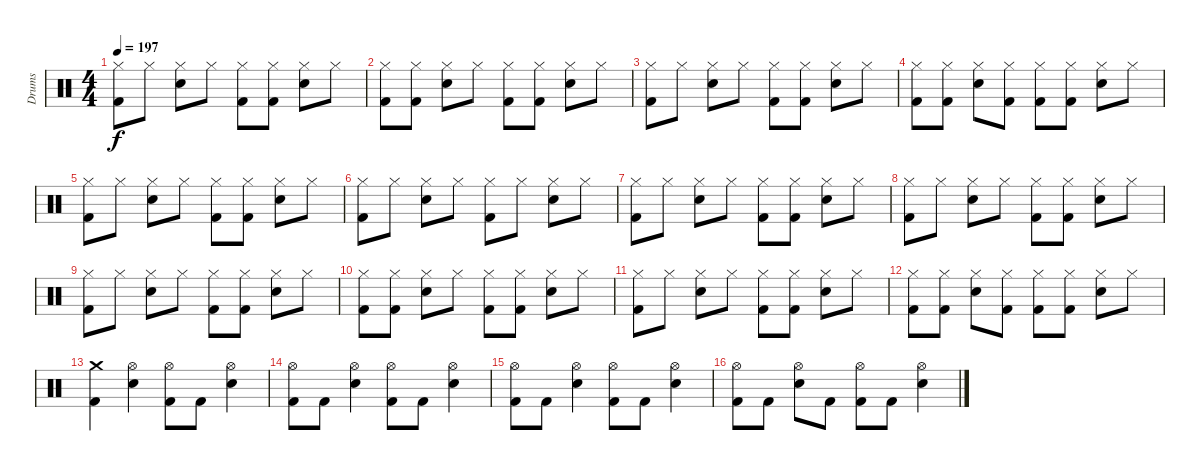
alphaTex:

\track ("Drums" "Drums") {instrument percussion}
\staff {score}
\articulation defaults
\ts (4 4)
\tempo 197
\clef neutral
\ks c
("Hi-Hat (closed)" "Kick (hit) 2").8{dy f} "Hi-Hat (closed)".8 ("Hi-Hat (closed)" "Electric Snare (hit)").8 "Hi-Hat (closed)".8 ("Hi-Hat (closed)" "Kick (hit) 2").8 ("Hi-Hat (closed)" "Kick (hit) 2").8 ("Hi-Hat (closed)" "Electric Snare (hit)").8 "Hi-Hat (closed)".8 |
("Hi-Hat (closed)" "Kick (hit) 2").8 ("Hi-Hat (closed)" "Kick (hit) 2").8 ("Hi-Hat (closed)" "Electric Snare (hit)").8 "Hi-Hat (closed)".8 ("Hi-Hat (closed)" "Kick (hit) 2").8 ("Hi-Hat (closed)" "Kick (hit) 2").8 ("Hi-Hat (closed)" "Electric Snare (hit)").8 "Hi-Hat (closed)".8 |
("Hi-Hat (closed)" "Kick (hit) 2").8 "Hi-Hat (closed)".8 ("Hi-Hat (closed)" "Electric Snare (hit)").8 "Hi-Hat (closed)".8 ("Hi-Hat (closed)" "Kick (hit) 2").8 ("Hi-Hat (closed)" "Kick (hit) 2").8 ("Hi-Hat (closed)" "Electric Snare (hit)").8 "Hi-Hat (closed)".8 |
("Hi-Hat (closed)" "Kick (hit) 2").8 ("Hi-Hat (closed)" "Kick (hit) 2").8 ("Hi-Hat (closed)" "Electric Snare (hit)").8 ("Hi-Hat (closed)" "Kick (hit) 2").8 ("Hi-Hat (closed)" "Kick (hit) 2").8 ("Hi-Hat (closed)" "Kick (hit) 2").8 ("Hi-Hat (closed)" "Electric Snare (hit)").8 "Hi-Hat (closed)".8 |
("Hi-Hat (closed)" "Kick (hit) 2").8 "Hi-Hat (closed)".8 ("Hi-Hat (closed)" "Electric Snare (hit)").8 "Hi-Hat (closed)".8 ("Hi-Hat (closed)" "Kick (hit) 2").8 ("Hi-Hat (closed)" "Kick (hit) 2").8 ("Hi-Hat (closed)" "Electric Snare (hit)").8 "Hi-Hat (closed)".8 |
("Hi-Hat (closed)" "Kick (hit) 2").8 "Hi-Hat (closed)".8 ("Hi-Hat (closed)" "Electric Snare (hit)").8 "Hi-Hat (closed)".8 ("Hi-Hat (closed)" "Kick (hit) 2").8 "Hi-Hat (closed)".8 ("Hi-Hat (closed)" "Electric Snare (hit)").8 "Hi-Hat (closed)".8 |
("Hi-Hat (closed)" "Kick (hit) 2").8 "Hi-Hat (closed)".8 ("Hi-Hat (closed)" "Electric Snare (hit)").8 "Hi-Hat (closed)".8 ("Hi-Hat (closed)" "Kick (hit) 2").8 ("Hi-Hat (closed)" "Kick (hit) 2").8 ("Hi-Hat (closed)" "Electric Snare (hit)").8 "Hi-Hat (closed)".8 |
("Hi-Hat (closed)" "Kick (hit) 2").8 "Hi-Hat (closed)".8 ("Hi-Hat (closed)" "Electric Snare (hit)").8 "Hi-Hat (closed)".8 ("Hi-Hat (closed)" "Kick (hit) 2").8 ("Hi-Hat (closed)" "Kick (hit) 2").8 ("Hi-Hat (closed)" "Electric Snare (hit)").8 "Hi-Hat (closed)".8 |
("Hi-Hat (closed)" "Kick (hit) 2").8 "Hi-Hat (closed)".8 ("Hi-Hat (closed)" "Electric Snare (hit)").8 "Hi-Hat (closed)".8 ("Hi-Hat (closed)" "Kick (hit) 2").8 ("Hi-Hat (closed)" "Kick (hit) 2").8 ("Hi-Hat (closed)" "Electric Snare (hit)").8 "Hi-Hat (closed)".8 |
("Hi-Hat (closed)" "Kick (hit) 2").8 ("Hi-Hat (closed)" "Kick (hit) 2").8 ("Hi-Hat (closed)" "Electric Snare (hit)").8 "Hi-Hat (closed)".8 ("Hi-Hat (closed)" "Kick (hit) 2").8 ("Hi-Hat (closed)" "Kick (hit) 2").8 ("Hi-Hat (closed)" "Electric Snare (hit)").8 "Hi-Hat (closed)".8 |
("Hi-Hat (closed)" "Kick (hit) 2").8 "Hi-Hat (closed)".8 ("Hi-Hat (closed)" "Electric Snare (hit)").8 "Hi-Hat (closed)".8 ("Hi-Hat (closed)" "Kick (hit) 2").8 ("Hi-Hat (closed)" "Kick (hit) 2").8 ("Hi-Hat (closed)" "Electric Snare (hit)").8 "Hi-Hat (closed)".8 |
("Hi-Hat (closed)" "Kick (hit) 2").8 ("Hi-Hat (closed)" "Kick (hit) 2").8 ("Hi-Hat (closed)" "Electric Snare (hit)").8 ("Hi-Hat (closed)" "Kick (hit) 2").8 ("Hi-Hat (closed)" "Kick (hit) 2").8 ("Hi-Hat (closed)" "Kick (hit) 2").8 ("Hi-Hat (closed)" "Electric Snare (hit)").8 "Hi-Hat (closed)".8 |
("Crash medium (hit)" "Kick (hit) 2").4{volume 12} ("Hi-Hat (open)" "Electric Snare (hit)").4 ("Hi-Hat (open)" "Kick (hit) 2").8 "Kick (hit) 2".8 ("Hi-Hat (open)" "Electric Snare (hit)").4 |
("Hi-Hat (open)" "Kick (hit) 2").8 "Kick (hit) 2".8 ("Hi-Hat (open)" "Electric Snare (hit)").4 ("Hi-Hat (open)" "Kick (hit) 2").8 "Kick (hit) 2".8 ("Hi-Hat (open)" "Electric Snare (hit)").4 |
("Hi-Hat (open)" "Kick (hit) 2").8 "Kick (hit) 2".8 ("Hi-Hat (open)" "Electric Snare (hit)").4 ("Hi-Hat (open)" "Kick (hit) 2").8 "Kick (hit) 2".8 ("Hi-Hat (open)" "Electric Snare (hit)").4 |
("Hi-Hat (open)" "Kick (hit) 2").8 "Kick (hit) 2".8 ("Hi-Hat (open)" "Electric Snare (hit)").8 "Kick (hit) 2".8 ("Hi-Hat (open)" "Kick (hit) 2").8 "Kick (hit) 2".8 ("Hi-Hat (open)" "Electric Snare (hit)").4
